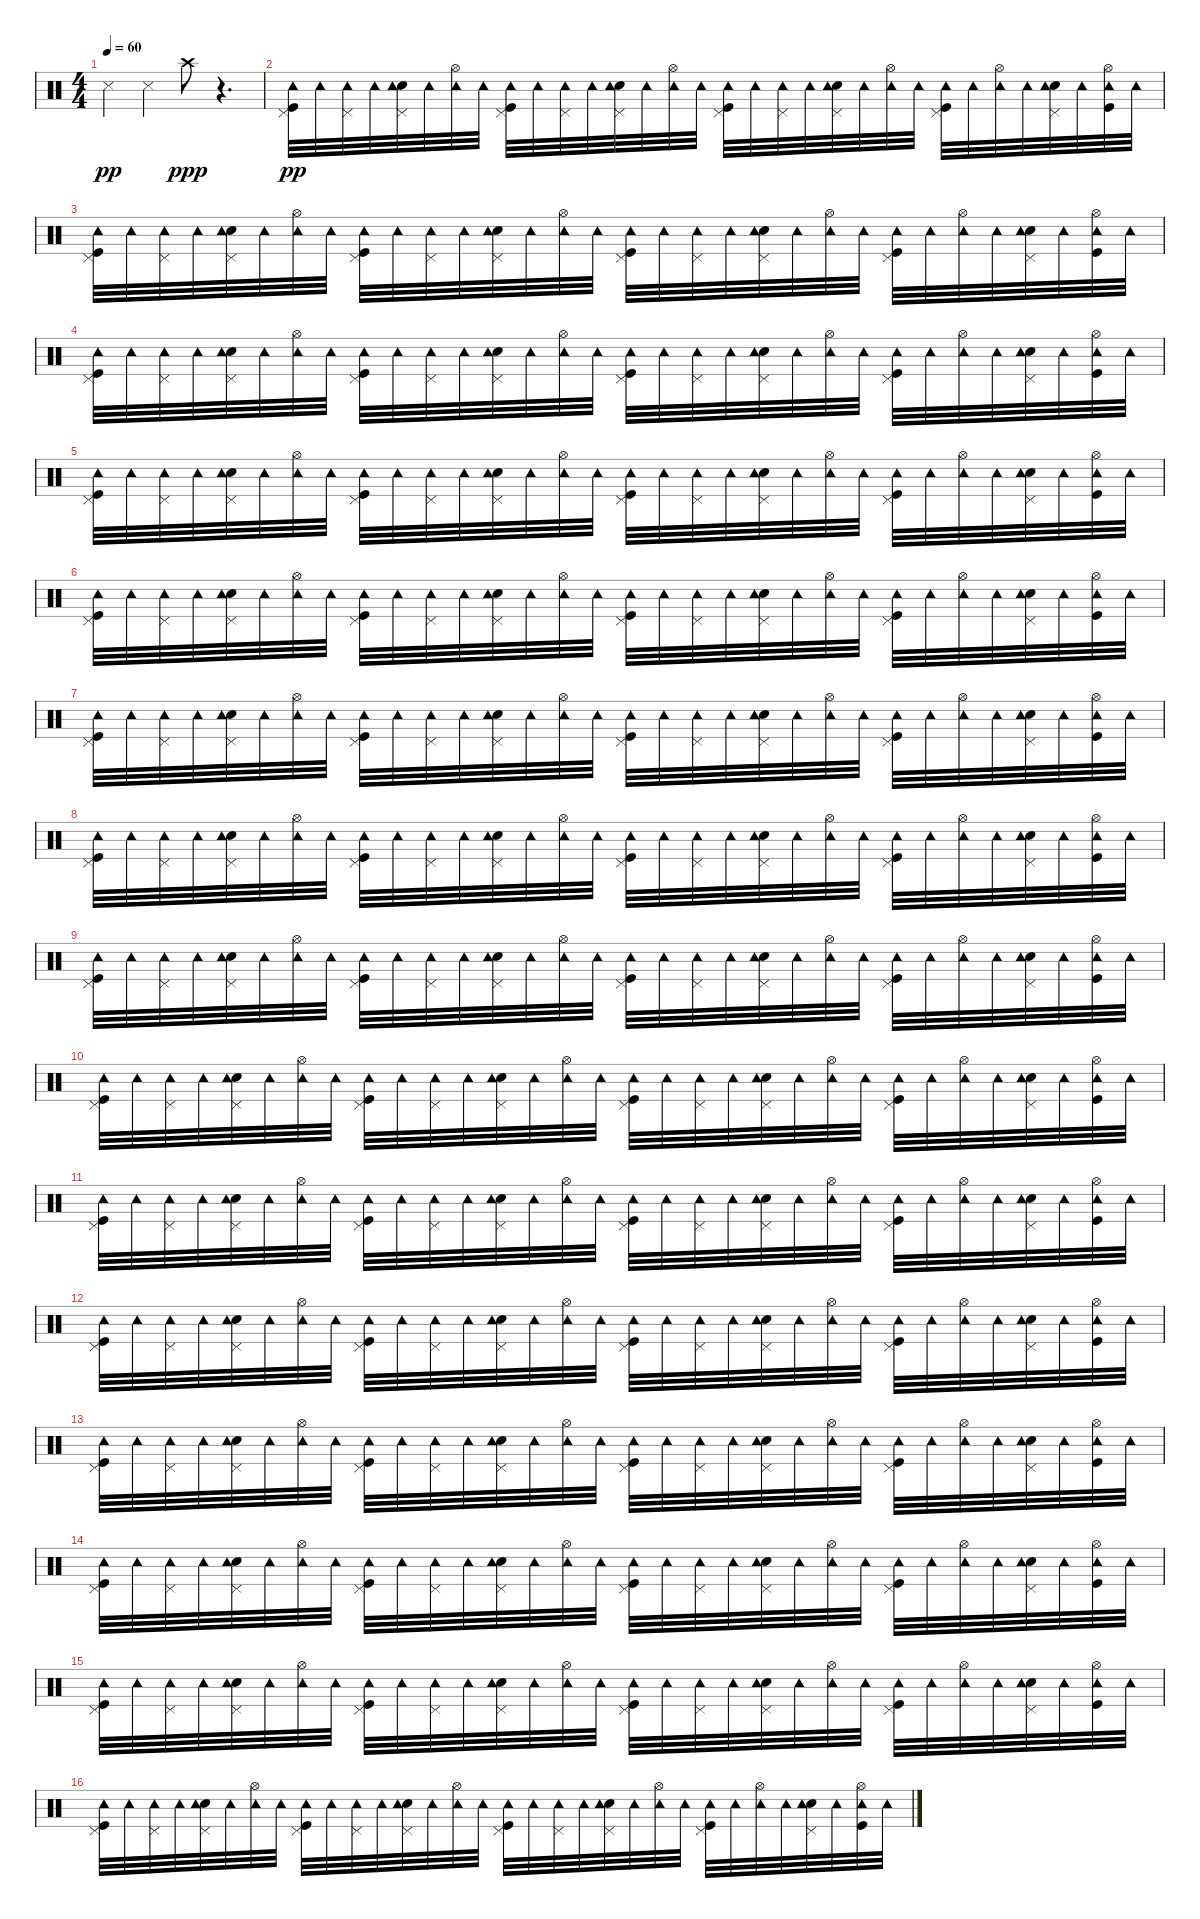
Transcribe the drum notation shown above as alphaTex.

\track "" {instrument percussion}
\staff {score}
\articulation defaults
\ts (4 4)
\tempo 60
\clef neutral
\ks c "Snare (side stick) 3".4{dy pp} "Snare (side stick) 3".4 "Crash high (hit)".8{dy ppp}
r.4{d} |
("Kick (hit)" "Pedal Hi-Hat (hit)" "Tambourine (hit)").32{dy pp} "Tambourine (hit)".32 ("Pedal Hi-Hat (hit)" "Tambourine (hit)").32 "Tambourine (hit)".32 ("Snare (hit) 2" "Pedal Hi-Hat (hit)" "Tambourine (hit)").32 "Tambourine (hit)".32 ("Hi-Hat (open)" "Tambourine (hit)").32 "Tambourine (hit)".32 ("Kick (hit)" "Pedal Hi-Hat (hit)" "Tambourine (hit)").32 "Tambourine (hit)".32 ("Pedal Hi-Hat (hit)" "Tambourine (hit)").32 "Tambourine (hit)".32 ("Snare (hit) 2" "Pedal Hi-Hat (hit)" "Tambourine (hit)").32 "Tambourine (hit)".32 ("Hi-Hat (open)" "Tambourine (hit)").32 "Tambourine (hit)".32 ("Kick (hit)" "Pedal Hi-Hat (hit)" "Tambourine (hit)").32 "Tambourine (hit)".32 ("Pedal Hi-Hat (hit)" "Tambourine (hit)").32 "Tambourine (hit)".32 ("Snare (hit) 2" "Pedal Hi-Hat (hit)" "Tambourine (hit)").32 "Tambourine (hit)".32 ("Hi-Hat (open)" "Tambourine (hit)").32 "Tambourine (hit)".32 ("Kick (hit)" "Pedal Hi-Hat (hit)" "Tambourine (hit)").32 "Tambourine (hit)".32 ("Hi-Hat (open)" "Tambourine (hit)").32 "Tambourine (hit)".32 ("Snare (hit) 2" "Pedal Hi-Hat (hit)" "Tambourine (hit)").32 "Tambourine (hit)".32 ("Kick (hit)" "Hi-Hat (open)" "Tambourine (hit)").32 "Tambourine (hit)".32 |
("Kick (hit)" "Pedal Hi-Hat (hit)" "Tambourine (hit)").32 "Tambourine (hit)".32 ("Pedal Hi-Hat (hit)" "Tambourine (hit)").32 "Tambourine (hit)".32 ("Snare (hit) 2" "Pedal Hi-Hat (hit)" "Tambourine (hit)").32 "Tambourine (hit)".32 ("Hi-Hat (open)" "Tambourine (hit)").32 "Tambourine (hit)".32 ("Kick (hit)" "Pedal Hi-Hat (hit)" "Tambourine (hit)").32 "Tambourine (hit)".32 ("Pedal Hi-Hat (hit)" "Tambourine (hit)").32 "Tambourine (hit)".32 ("Snare (hit) 2" "Pedal Hi-Hat (hit)" "Tambourine (hit)").32 "Tambourine (hit)".32 ("Hi-Hat (open)" "Tambourine (hit)").32 "Tambourine (hit)".32 ("Kick (hit)" "Pedal Hi-Hat (hit)" "Tambourine (hit)").32 "Tambourine (hit)".32 ("Pedal Hi-Hat (hit)" "Tambourine (hit)").32 "Tambourine (hit)".32 ("Snare (hit) 2" "Pedal Hi-Hat (hit)" "Tambourine (hit)").32 "Tambourine (hit)".32 ("Hi-Hat (open)" "Tambourine (hit)").32 "Tambourine (hit)".32 ("Kick (hit)" "Pedal Hi-Hat (hit)" "Tambourine (hit)").32 "Tambourine (hit)".32 ("Hi-Hat (open)" "Tambourine (hit)").32 "Tambourine (hit)".32 ("Snare (hit) 2" "Pedal Hi-Hat (hit)" "Tambourine (hit)").32 "Tambourine (hit)".32 ("Kick (hit)" "Hi-Hat (open)" "Tambourine (hit)").32 "Tambourine (hit)".32 |
("Kick (hit)" "Pedal Hi-Hat (hit)" "Tambourine (hit)").32 "Tambourine (hit)".32 ("Pedal Hi-Hat (hit)" "Tambourine (hit)").32 "Tambourine (hit)".32 ("Snare (hit) 2" "Pedal Hi-Hat (hit)" "Tambourine (hit)").32 "Tambourine (hit)".32 ("Hi-Hat (open)" "Tambourine (hit)").32 "Tambourine (hit)".32 ("Kick (hit)" "Pedal Hi-Hat (hit)" "Tambourine (hit)").32 "Tambourine (hit)".32 ("Pedal Hi-Hat (hit)" "Tambourine (hit)").32 "Tambourine (hit)".32 ("Snare (hit) 2" "Pedal Hi-Hat (hit)" "Tambourine (hit)").32 "Tambourine (hit)".32 ("Hi-Hat (open)" "Tambourine (hit)").32 "Tambourine (hit)".32 ("Kick (hit)" "Pedal Hi-Hat (hit)" "Tambourine (hit)").32 "Tambourine (hit)".32 ("Pedal Hi-Hat (hit)" "Tambourine (hit)").32 "Tambourine (hit)".32 ("Snare (hit) 2" "Pedal Hi-Hat (hit)" "Tambourine (hit)").32 "Tambourine (hit)".32 ("Hi-Hat (open)" "Tambourine (hit)").32 "Tambourine (hit)".32 ("Kick (hit)" "Pedal Hi-Hat (hit)" "Tambourine (hit)").32 "Tambourine (hit)".32 ("Hi-Hat (open)" "Tambourine (hit)").32 "Tambourine (hit)".32 ("Snare (hit) 2" "Pedal Hi-Hat (hit)" "Tambourine (hit)").32 "Tambourine (hit)".32 ("Kick (hit)" "Hi-Hat (open)" "Tambourine (hit)").32 "Tambourine (hit)".32 |
("Kick (hit)" "Pedal Hi-Hat (hit)" "Tambourine (hit)").32 "Tambourine (hit)".32 ("Pedal Hi-Hat (hit)" "Tambourine (hit)").32 "Tambourine (hit)".32 ("Snare (hit) 2" "Pedal Hi-Hat (hit)" "Tambourine (hit)").32 "Tambourine (hit)".32 ("Hi-Hat (open)" "Tambourine (hit)").32 "Tambourine (hit)".32 ("Kick (hit)" "Pedal Hi-Hat (hit)" "Tambourine (hit)").32 "Tambourine (hit)".32 ("Pedal Hi-Hat (hit)" "Tambourine (hit)").32 "Tambourine (hit)".32 ("Snare (hit) 2" "Pedal Hi-Hat (hit)" "Tambourine (hit)").32 "Tambourine (hit)".32 ("Hi-Hat (open)" "Tambourine (hit)").32 "Tambourine (hit)".32 ("Kick (hit)" "Pedal Hi-Hat (hit)" "Tambourine (hit)").32 "Tambourine (hit)".32 ("Pedal Hi-Hat (hit)" "Tambourine (hit)").32 "Tambourine (hit)".32 ("Snare (hit) 2" "Pedal Hi-Hat (hit)" "Tambourine (hit)").32 "Tambourine (hit)".32 ("Hi-Hat (open)" "Tambourine (hit)").32 "Tambourine (hit)".32 ("Kick (hit)" "Pedal Hi-Hat (hit)" "Tambourine (hit)").32 "Tambourine (hit)".32 ("Hi-Hat (open)" "Tambourine (hit)").32 "Tambourine (hit)".32 ("Snare (hit) 2" "Pedal Hi-Hat (hit)" "Tambourine (hit)").32 "Tambourine (hit)".32 ("Kick (hit)" "Hi-Hat (open)" "Tambourine (hit)").32 "Tambourine (hit)".32 |
("Kick (hit)" "Pedal Hi-Hat (hit)" "Tambourine (hit)").32 "Tambourine (hit)".32 ("Pedal Hi-Hat (hit)" "Tambourine (hit)").32 "Tambourine (hit)".32 ("Snare (hit) 2" "Pedal Hi-Hat (hit)" "Tambourine (hit)").32 "Tambourine (hit)".32 ("Hi-Hat (open)" "Tambourine (hit)").32 "Tambourine (hit)".32 ("Kick (hit)" "Pedal Hi-Hat (hit)" "Tambourine (hit)").32 "Tambourine (hit)".32 ("Pedal Hi-Hat (hit)" "Tambourine (hit)").32 "Tambourine (hit)".32 ("Snare (hit) 2" "Pedal Hi-Hat (hit)" "Tambourine (hit)").32 "Tambourine (hit)".32 ("Hi-Hat (open)" "Tambourine (hit)").32 "Tambourine (hit)".32 ("Kick (hit)" "Pedal Hi-Hat (hit)" "Tambourine (hit)").32 "Tambourine (hit)".32 ("Pedal Hi-Hat (hit)" "Tambourine (hit)").32 "Tambourine (hit)".32 ("Snare (hit) 2" "Pedal Hi-Hat (hit)" "Tambourine (hit)").32 "Tambourine (hit)".32 ("Hi-Hat (open)" "Tambourine (hit)").32 "Tambourine (hit)".32 ("Kick (hit)" "Pedal Hi-Hat (hit)" "Tambourine (hit)").32 "Tambourine (hit)".32 ("Hi-Hat (open)" "Tambourine (hit)").32 "Tambourine (hit)".32 ("Snare (hit) 2" "Pedal Hi-Hat (hit)" "Tambourine (hit)").32 "Tambourine (hit)".32 ("Kick (hit)" "Hi-Hat (open)" "Tambourine (hit)").32 "Tambourine (hit)".32 |
("Kick (hit)" "Pedal Hi-Hat (hit)" "Tambourine (hit)").32 "Tambourine (hit)".32 ("Pedal Hi-Hat (hit)" "Tambourine (hit)").32 "Tambourine (hit)".32 ("Snare (hit) 2" "Pedal Hi-Hat (hit)" "Tambourine (hit)").32 "Tambourine (hit)".32 ("Hi-Hat (open)" "Tambourine (hit)").32 "Tambourine (hit)".32 ("Kick (hit)" "Pedal Hi-Hat (hit)" "Tambourine (hit)").32 "Tambourine (hit)".32 ("Pedal Hi-Hat (hit)" "Tambourine (hit)").32 "Tambourine (hit)".32 ("Snare (hit) 2" "Pedal Hi-Hat (hit)" "Tambourine (hit)").32 "Tambourine (hit)".32 ("Hi-Hat (open)" "Tambourine (hit)").32 "Tambourine (hit)".32 ("Kick (hit)" "Pedal Hi-Hat (hit)" "Tambourine (hit)").32 "Tambourine (hit)".32 ("Pedal Hi-Hat (hit)" "Tambourine (hit)").32 "Tambourine (hit)".32 ("Snare (hit) 2" "Pedal Hi-Hat (hit)" "Tambourine (hit)").32 "Tambourine (hit)".32 ("Hi-Hat (open)" "Tambourine (hit)").32 "Tambourine (hit)".32 ("Kick (hit)" "Pedal Hi-Hat (hit)" "Tambourine (hit)").32 "Tambourine (hit)".32 ("Hi-Hat (open)" "Tambourine (hit)").32 "Tambourine (hit)".32 ("Snare (hit) 2" "Pedal Hi-Hat (hit)" "Tambourine (hit)").32 "Tambourine (hit)".32 ("Kick (hit)" "Hi-Hat (open)" "Tambourine (hit)").32 "Tambourine (hit)".32 |
("Kick (hit)" "Pedal Hi-Hat (hit)" "Tambourine (hit)").32 "Tambourine (hit)".32 ("Pedal Hi-Hat (hit)" "Tambourine (hit)").32 "Tambourine (hit)".32 ("Snare (hit) 2" "Pedal Hi-Hat (hit)" "Tambourine (hit)").32 "Tambourine (hit)".32 ("Hi-Hat (open)" "Tambourine (hit)").32 "Tambourine (hit)".32 ("Kick (hit)" "Pedal Hi-Hat (hit)" "Tambourine (hit)").32 "Tambourine (hit)".32 ("Pedal Hi-Hat (hit)" "Tambourine (hit)").32 "Tambourine (hit)".32 ("Snare (hit) 2" "Pedal Hi-Hat (hit)" "Tambourine (hit)").32 "Tambourine (hit)".32 ("Hi-Hat (open)" "Tambourine (hit)").32 "Tambourine (hit)".32 ("Kick (hit)" "Pedal Hi-Hat (hit)" "Tambourine (hit)").32 "Tambourine (hit)".32 ("Pedal Hi-Hat (hit)" "Tambourine (hit)").32 "Tambourine (hit)".32 ("Snare (hit) 2" "Pedal Hi-Hat (hit)" "Tambourine (hit)").32 "Tambourine (hit)".32 ("Hi-Hat (open)" "Tambourine (hit)").32 "Tambourine (hit)".32 ("Kick (hit)" "Pedal Hi-Hat (hit)" "Tambourine (hit)").32 "Tambourine (hit)".32 ("Hi-Hat (open)" "Tambourine (hit)").32 "Tambourine (hit)".32 ("Snare (hit) 2" "Pedal Hi-Hat (hit)" "Tambourine (hit)").32 "Tambourine (hit)".32 ("Kick (hit)" "Hi-Hat (open)" "Tambourine (hit)").32 "Tambourine (hit)".32 |
("Kick (hit)" "Pedal Hi-Hat (hit)" "Tambourine (hit)").32 "Tambourine (hit)".32 ("Pedal Hi-Hat (hit)" "Tambourine (hit)").32 "Tambourine (hit)".32 ("Snare (hit) 2" "Pedal Hi-Hat (hit)" "Tambourine (hit)").32 "Tambourine (hit)".32 ("Hi-Hat (open)" "Tambourine (hit)").32 "Tambourine (hit)".32 ("Kick (hit)" "Pedal Hi-Hat (hit)" "Tambourine (hit)").32 "Tambourine (hit)".32 ("Pedal Hi-Hat (hit)" "Tambourine (hit)").32 "Tambourine (hit)".32 ("Snare (hit) 2" "Pedal Hi-Hat (hit)" "Tambourine (hit)").32 "Tambourine (hit)".32 ("Hi-Hat (open)" "Tambourine (hit)").32 "Tambourine (hit)".32 ("Kick (hit)" "Pedal Hi-Hat (hit)" "Tambourine (hit)").32 "Tambourine (hit)".32 ("Pedal Hi-Hat (hit)" "Tambourine (hit)").32 "Tambourine (hit)".32 ("Snare (hit) 2" "Pedal Hi-Hat (hit)" "Tambourine (hit)").32 "Tambourine (hit)".32 ("Hi-Hat (open)" "Tambourine (hit)").32 "Tambourine (hit)".32 ("Kick (hit)" "Pedal Hi-Hat (hit)" "Tambourine (hit)").32 "Tambourine (hit)".32 ("Hi-Hat (open)" "Tambourine (hit)").32 "Tambourine (hit)".32 ("Snare (hit) 2" "Pedal Hi-Hat (hit)" "Tambourine (hit)").32 "Tambourine (hit)".32 ("Kick (hit)" "Hi-Hat (open)" "Tambourine (hit)").32 "Tambourine (hit)".32 |
("Kick (hit)" "Pedal Hi-Hat (hit)" "Tambourine (hit)").32 "Tambourine (hit)".32 ("Pedal Hi-Hat (hit)" "Tambourine (hit)").32 "Tambourine (hit)".32 ("Snare (hit) 2" "Pedal Hi-Hat (hit)" "Tambourine (hit)").32 "Tambourine (hit)".32 ("Hi-Hat (open)" "Tambourine (hit)").32 "Tambourine (hit)".32 ("Kick (hit)" "Pedal Hi-Hat (hit)" "Tambourine (hit)").32 "Tambourine (hit)".32 ("Pedal Hi-Hat (hit)" "Tambourine (hit)").32 "Tambourine (hit)".32 ("Snare (hit) 2" "Pedal Hi-Hat (hit)" "Tambourine (hit)").32 "Tambourine (hit)".32 ("Hi-Hat (open)" "Tambourine (hit)").32 "Tambourine (hit)".32 ("Kick (hit)" "Pedal Hi-Hat (hit)" "Tambourine (hit)").32 "Tambourine (hit)".32 ("Pedal Hi-Hat (hit)" "Tambourine (hit)").32 "Tambourine (hit)".32 ("Snare (hit) 2" "Pedal Hi-Hat (hit)" "Tambourine (hit)").32 "Tambourine (hit)".32 ("Hi-Hat (open)" "Tambourine (hit)").32 "Tambourine (hit)".32 ("Kick (hit)" "Pedal Hi-Hat (hit)" "Tambourine (hit)").32 "Tambourine (hit)".32 ("Hi-Hat (open)" "Tambourine (hit)").32 "Tambourine (hit)".32 ("Snare (hit) 2" "Pedal Hi-Hat (hit)" "Tambourine (hit)").32 "Tambourine (hit)".32 ("Kick (hit)" "Hi-Hat (open)" "Tambourine (hit)").32 "Tambourine (hit)".32 |
("Kick (hit)" "Pedal Hi-Hat (hit)" "Tambourine (hit)").32 "Tambourine (hit)".32 ("Pedal Hi-Hat (hit)" "Tambourine (hit)").32 "Tambourine (hit)".32 ("Snare (hit) 2" "Pedal Hi-Hat (hit)" "Tambourine (hit)").32 "Tambourine (hit)".32 ("Hi-Hat (open)" "Tambourine (hit)").32 "Tambourine (hit)".32 ("Kick (hit)" "Pedal Hi-Hat (hit)" "Tambourine (hit)").32 "Tambourine (hit)".32 ("Pedal Hi-Hat (hit)" "Tambourine (hit)").32 "Tambourine (hit)".32 ("Snare (hit) 2" "Pedal Hi-Hat (hit)" "Tambourine (hit)").32 "Tambourine (hit)".32 ("Hi-Hat (open)" "Tambourine (hit)").32 "Tambourine (hit)".32 ("Kick (hit)" "Pedal Hi-Hat (hit)" "Tambourine (hit)").32 "Tambourine (hit)".32 ("Pedal Hi-Hat (hit)" "Tambourine (hit)").32 "Tambourine (hit)".32 ("Snare (hit) 2" "Pedal Hi-Hat (hit)" "Tambourine (hit)").32 "Tambourine (hit)".32 ("Hi-Hat (open)" "Tambourine (hit)").32 "Tambourine (hit)".32 ("Kick (hit)" "Pedal Hi-Hat (hit)" "Tambourine (hit)").32 "Tambourine (hit)".32 ("Hi-Hat (open)" "Tambourine (hit)").32 "Tambourine (hit)".32 ("Snare (hit) 2" "Pedal Hi-Hat (hit)" "Tambourine (hit)").32 "Tambourine (hit)".32 ("Kick (hit)" "Hi-Hat (open)" "Tambourine (hit)").32 "Tambourine (hit)".32 |
("Kick (hit)" "Pedal Hi-Hat (hit)" "Tambourine (hit)").32 "Tambourine (hit)".32 ("Pedal Hi-Hat (hit)" "Tambourine (hit)").32 "Tambourine (hit)".32 ("Snare (hit) 2" "Pedal Hi-Hat (hit)" "Tambourine (hit)").32 "Tambourine (hit)".32 ("Hi-Hat (open)" "Tambourine (hit)").32 "Tambourine (hit)".32 ("Kick (hit)" "Pedal Hi-Hat (hit)" "Tambourine (hit)").32 "Tambourine (hit)".32 ("Pedal Hi-Hat (hit)" "Tambourine (hit)").32 "Tambourine (hit)".32 ("Snare (hit) 2" "Pedal Hi-Hat (hit)" "Tambourine (hit)").32 "Tambourine (hit)".32 ("Hi-Hat (open)" "Tambourine (hit)").32 "Tambourine (hit)".32 ("Kick (hit)" "Pedal Hi-Hat (hit)" "Tambourine (hit)").32 "Tambourine (hit)".32 ("Pedal Hi-Hat (hit)" "Tambourine (hit)").32 "Tambourine (hit)".32 ("Snare (hit) 2" "Pedal Hi-Hat (hit)" "Tambourine (hit)").32 "Tambourine (hit)".32 ("Hi-Hat (open)" "Tambourine (hit)").32 "Tambourine (hit)".32 ("Kick (hit)" "Pedal Hi-Hat (hit)" "Tambourine (hit)").32 "Tambourine (hit)".32 ("Hi-Hat (open)" "Tambourine (hit)").32 "Tambourine (hit)".32 ("Snare (hit) 2" "Pedal Hi-Hat (hit)" "Tambourine (hit)").32 "Tambourine (hit)".32 ("Kick (hit)" "Hi-Hat (open)" "Tambourine (hit)").32 "Tambourine (hit)".32 |
("Kick (hit)" "Pedal Hi-Hat (hit)" "Tambourine (hit)").32 "Tambourine (hit)".32 ("Pedal Hi-Hat (hit)" "Tambourine (hit)").32 "Tambourine (hit)".32 ("Snare (hit) 2" "Pedal Hi-Hat (hit)" "Tambourine (hit)").32 "Tambourine (hit)".32 ("Hi-Hat (open)" "Tambourine (hit)").32 "Tambourine (hit)".32 ("Kick (hit)" "Pedal Hi-Hat (hit)" "Tambourine (hit)").32 "Tambourine (hit)".32 ("Pedal Hi-Hat (hit)" "Tambourine (hit)").32 "Tambourine (hit)".32 ("Snare (hit) 2" "Pedal Hi-Hat (hit)" "Tambourine (hit)").32 "Tambourine (hit)".32 ("Hi-Hat (open)" "Tambourine (hit)").32 "Tambourine (hit)".32 ("Kick (hit)" "Pedal Hi-Hat (hit)" "Tambourine (hit)").32 "Tambourine (hit)".32 ("Pedal Hi-Hat (hit)" "Tambourine (hit)").32 "Tambourine (hit)".32 ("Snare (hit) 2" "Pedal Hi-Hat (hit)" "Tambourine (hit)").32 "Tambourine (hit)".32 ("Hi-Hat (open)" "Tambourine (hit)").32 "Tambourine (hit)".32 ("Kick (hit)" "Pedal Hi-Hat (hit)" "Tambourine (hit)").32 "Tambourine (hit)".32 ("Hi-Hat (open)" "Tambourine (hit)").32 "Tambourine (hit)".32 ("Snare (hit) 2" "Pedal Hi-Hat (hit)" "Tambourine (hit)").32 "Tambourine (hit)".32 ("Kick (hit)" "Hi-Hat (open)" "Tambourine (hit)").32 "Tambourine (hit)".32 |
("Kick (hit)" "Pedal Hi-Hat (hit)" "Tambourine (hit)").32 "Tambourine (hit)".32 ("Pedal Hi-Hat (hit)" "Tambourine (hit)").32 "Tambourine (hit)".32 ("Snare (hit) 2" "Pedal Hi-Hat (hit)" "Tambourine (hit)").32 "Tambourine (hit)".32 ("Hi-Hat (open)" "Tambourine (hit)").32 "Tambourine (hit)".32 ("Kick (hit)" "Pedal Hi-Hat (hit)" "Tambourine (hit)").32 "Tambourine (hit)".32 ("Pedal Hi-Hat (hit)" "Tambourine (hit)").32 "Tambourine (hit)".32 ("Snare (hit) 2" "Pedal Hi-Hat (hit)" "Tambourine (hit)").32 "Tambourine (hit)".32 ("Hi-Hat (open)" "Tambourine (hit)").32 "Tambourine (hit)".32 ("Kick (hit)" "Pedal Hi-Hat (hit)" "Tambourine (hit)").32 "Tambourine (hit)".32 ("Pedal Hi-Hat (hit)" "Tambourine (hit)").32 "Tambourine (hit)".32 ("Snare (hit) 2" "Pedal Hi-Hat (hit)" "Tambourine (hit)").32 "Tambourine (hit)".32 ("Hi-Hat (open)" "Tambourine (hit)").32 "Tambourine (hit)".32 ("Kick (hit)" "Pedal Hi-Hat (hit)" "Tambourine (hit)").32 "Tambourine (hit)".32 ("Hi-Hat (open)" "Tambourine (hit)").32 "Tambourine (hit)".32 ("Snare (hit) 2" "Pedal Hi-Hat (hit)" "Tambourine (hit)").32 "Tambourine (hit)".32 ("Kick (hit)" "Hi-Hat (open)" "Tambourine (hit)").32 "Tambourine (hit)".32 |
("Kick (hit)" "Pedal Hi-Hat (hit)" "Tambourine (hit)").32 "Tambourine (hit)".32 ("Pedal Hi-Hat (hit)" "Tambourine (hit)").32 "Tambourine (hit)".32 ("Snare (hit) 2" "Pedal Hi-Hat (hit)" "Tambourine (hit)").32 "Tambourine (hit)".32 ("Hi-Hat (open)" "Tambourine (hit)").32 "Tambourine (hit)".32 ("Kick (hit)" "Pedal Hi-Hat (hit)" "Tambourine (hit)").32 "Tambourine (hit)".32 ("Pedal Hi-Hat (hit)" "Tambourine (hit)").32 "Tambourine (hit)".32 ("Snare (hit) 2" "Pedal Hi-Hat (hit)" "Tambourine (hit)").32 "Tambourine (hit)".32 ("Hi-Hat (open)" "Tambourine (hit)").32 "Tambourine (hit)".32 ("Kick (hit)" "Pedal Hi-Hat (hit)" "Tambourine (hit)").32 "Tambourine (hit)".32 ("Pedal Hi-Hat (hit)" "Tambourine (hit)").32 "Tambourine (hit)".32 ("Snare (hit) 2" "Pedal Hi-Hat (hit)" "Tambourine (hit)").32 "Tambourine (hit)".32 ("Hi-Hat (open)" "Tambourine (hit)").32 "Tambourine (hit)".32 ("Kick (hit)" "Pedal Hi-Hat (hit)" "Tambourine (hit)").32 "Tambourine (hit)".32 ("Hi-Hat (open)" "Tambourine (hit)").32 "Tambourine (hit)".32 ("Snare (hit) 2" "Pedal Hi-Hat (hit)" "Tambourine (hit)").32 "Tambourine (hit)".32 ("Kick (hit)" "Hi-Hat (open)" "Tambourine (hit)").32 "Tambourine (hit)".32 |
("Kick (hit)" "Pedal Hi-Hat (hit)" "Tambourine (hit)").32 "Tambourine (hit)".32 ("Pedal Hi-Hat (hit)" "Tambourine (hit)").32 "Tambourine (hit)".32 ("Snare (hit) 2" "Pedal Hi-Hat (hit)" "Tambourine (hit)").32 "Tambourine (hit)".32 ("Hi-Hat (open)" "Tambourine (hit)").32 "Tambourine (hit)".32 ("Kick (hit)" "Pedal Hi-Hat (hit)" "Tambourine (hit)").32 "Tambourine (hit)".32 ("Pedal Hi-Hat (hit)" "Tambourine (hit)").32 "Tambourine (hit)".32 ("Snare (hit) 2" "Pedal Hi-Hat (hit)" "Tambourine (hit)").32 "Tambourine (hit)".32 ("Hi-Hat (open)" "Tambourine (hit)").32 "Tambourine (hit)".32 ("Kick (hit)" "Pedal Hi-Hat (hit)" "Tambourine (hit)").32 "Tambourine (hit)".32 ("Pedal Hi-Hat (hit)" "Tambourine (hit)").32 "Tambourine (hit)".32 ("Snare (hit) 2" "Pedal Hi-Hat (hit)" "Tambourine (hit)").32 "Tambourine (hit)".32 ("Hi-Hat (open)" "Tambourine (hit)").32 "Tambourine (hit)".32 ("Kick (hit)" "Pedal Hi-Hat (hit)" "Tambourine (hit)").32 "Tambourine (hit)".32 ("Hi-Hat (open)" "Tambourine (hit)").32 "Tambourine (hit)".32 ("Snare (hit) 2" "Pedal Hi-Hat (hit)" "Tambourine (hit)").32 "Tambourine (hit)".32 ("Kick (hit)" "Hi-Hat (open)" "Tambourine (hit)").32 "Tambourine (hit)".32
